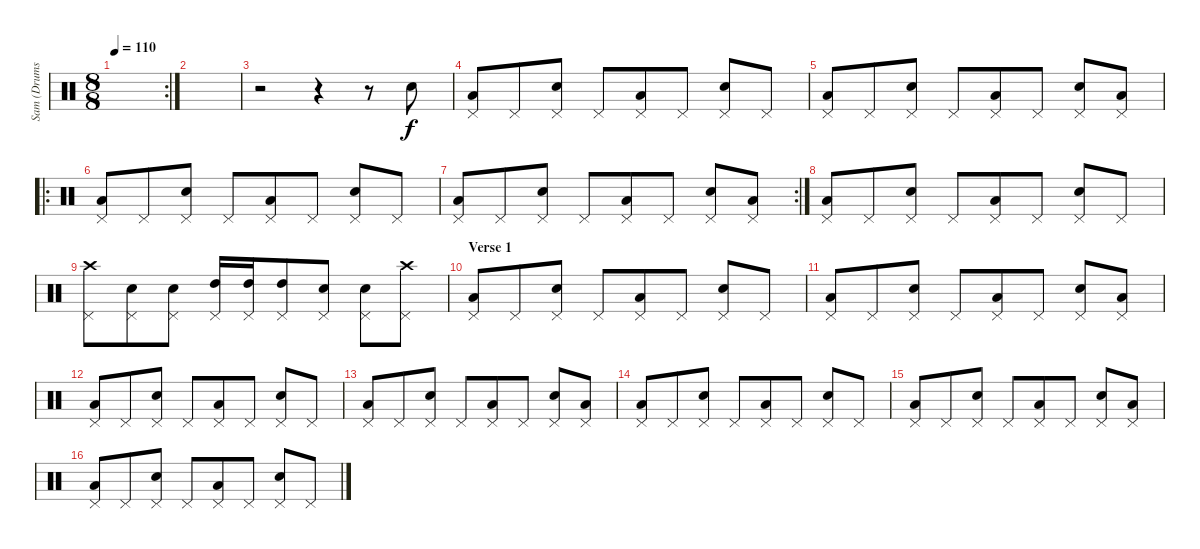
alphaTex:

\track ("Sam (Drums)" "Sam (Drums") {instrument percussion}
\staff {score}
\articulation defaults
\rc 2
\ts (8 8)
\tempo 110
\clef neutral
\ks c
|
|
r.2 r.4 r.8 "Electric Snare (hit)".8 |
("Low Tom (hit)" "Pedal Hi-Hat (hit)").8 "Pedal Hi-Hat (hit)".8 ("Snare (hit) 2" "Pedal Hi-Hat (hit)").8 "Pedal Hi-Hat (hit)".8 ("Low Tom (hit)" "Pedal Hi-Hat (hit)").8 "Pedal Hi-Hat (hit)".8 ("Snare (hit) 2" "Pedal Hi-Hat (hit)").8 "Pedal Hi-Hat (hit)".8 |
("Low Tom (hit)" "Pedal Hi-Hat (hit)").8 "Pedal Hi-Hat (hit)".8 ("Snare (hit) 2" "Pedal Hi-Hat (hit)").8 "Pedal Hi-Hat (hit)".8 ("Low Tom (hit)" "Pedal Hi-Hat (hit)").8 "Pedal Hi-Hat (hit)".8 ("Snare (hit) 2" "Pedal Hi-Hat (hit)").8 ("Low Tom (hit)" "Pedal Hi-Hat (hit)").8 |
\ro
("Low Tom (hit)" "Pedal Hi-Hat (hit)").8 "Pedal Hi-Hat (hit)".8 ("Snare (hit) 2" "Pedal Hi-Hat (hit)").8 "Pedal Hi-Hat (hit)".8 ("Low Tom (hit)" "Pedal Hi-Hat (hit)").8 "Pedal Hi-Hat (hit)".8 ("Snare (hit) 2" "Pedal Hi-Hat (hit)").8 "Pedal Hi-Hat (hit)".8 |
\rc 2
("Low Tom (hit)" "Pedal Hi-Hat (hit)").8 "Pedal Hi-Hat (hit)".8 ("Snare (hit) 2" "Pedal Hi-Hat (hit)").8 "Pedal Hi-Hat (hit)".8 ("Low Tom (hit)" "Pedal Hi-Hat (hit)").8 "Pedal Hi-Hat (hit)".8 ("Snare (hit) 2" "Pedal Hi-Hat (hit)").8 ("Low Tom (hit)" "Pedal Hi-Hat (hit)").8 |
("Low Tom (hit)" "Pedal Hi-Hat (hit)").8 "Pedal Hi-Hat (hit)".8 ("Snare (hit) 2" "Pedal Hi-Hat (hit)").8 "Pedal Hi-Hat (hit)".8 ("Low Tom (hit)" "Pedal Hi-Hat (hit)").8 "Pedal Hi-Hat (hit)".8 ("Snare (hit) 2" "Pedal Hi-Hat (hit)").8 "Pedal Hi-Hat (hit)".8 |
("Crash high (hit)" "Pedal Hi-Hat (hit)").8 ("Electric Snare (hit)" "Pedal Hi-Hat (hit)").8 ("Electric Snare (hit)" "Pedal Hi-Hat (hit)").8 ("High Tom (hit)" "Pedal Hi-Hat (hit)").16 ("High Tom (hit)" "Pedal Hi-Hat (hit)").16 ("High Tom (hit)" "Pedal Hi-Hat (hit)").8 ("Electric Snare (hit)" "Pedal Hi-Hat (hit)").8 ("Electric Snare (hit)" "Pedal Hi-Hat (hit)").8 ("Crash high (hit)" "Pedal Hi-Hat (hit)").8 |
\section ("" "Verse 1")
("Low Tom (hit)" "Pedal Hi-Hat (hit)").8 "Pedal Hi-Hat (hit)".8 ("Snare (hit) 2" "Pedal Hi-Hat (hit)").8 "Pedal Hi-Hat (hit)".8 ("Low Tom (hit)" "Pedal Hi-Hat (hit)").8 "Pedal Hi-Hat (hit)".8 ("Snare (hit) 2" "Pedal Hi-Hat (hit)").8 "Pedal Hi-Hat (hit)".8 |
("Low Tom (hit)" "Pedal Hi-Hat (hit)").8 "Pedal Hi-Hat (hit)".8 ("Snare (hit) 2" "Pedal Hi-Hat (hit)").8 "Pedal Hi-Hat (hit)".8 ("Low Tom (hit)" "Pedal Hi-Hat (hit)").8 "Pedal Hi-Hat (hit)".8 ("Snare (hit) 2" "Pedal Hi-Hat (hit)").8 ("Low Tom (hit)" "Pedal Hi-Hat (hit)").8 |
("Low Tom (hit)" "Pedal Hi-Hat (hit)").8 "Pedal Hi-Hat (hit)".8 ("Snare (hit) 2" "Pedal Hi-Hat (hit)").8 "Pedal Hi-Hat (hit)".8 ("Low Tom (hit)" "Pedal Hi-Hat (hit)").8 "Pedal Hi-Hat (hit)".8 ("Snare (hit) 2" "Pedal Hi-Hat (hit)").8 "Pedal Hi-Hat (hit)".8 |
("Low Tom (hit)" "Pedal Hi-Hat (hit)").8 "Pedal Hi-Hat (hit)".8 ("Snare (hit) 2" "Pedal Hi-Hat (hit)").8 "Pedal Hi-Hat (hit)".8 ("Low Tom (hit)" "Pedal Hi-Hat (hit)").8 "Pedal Hi-Hat (hit)".8 ("Snare (hit) 2" "Pedal Hi-Hat (hit)").8 ("Low Tom (hit)" "Pedal Hi-Hat (hit)").8 |
("Low Tom (hit)" "Pedal Hi-Hat (hit)").8 "Pedal Hi-Hat (hit)".8 ("Snare (hit) 2" "Pedal Hi-Hat (hit)").8 "Pedal Hi-Hat (hit)".8 ("Low Tom (hit)" "Pedal Hi-Hat (hit)").8 "Pedal Hi-Hat (hit)".8 ("Snare (hit) 2" "Pedal Hi-Hat (hit)").8 "Pedal Hi-Hat (hit)".8 |
("Low Tom (hit)" "Pedal Hi-Hat (hit)").8 "Pedal Hi-Hat (hit)".8 ("Snare (hit) 2" "Pedal Hi-Hat (hit)").8 "Pedal Hi-Hat (hit)".8 ("Low Tom (hit)" "Pedal Hi-Hat (hit)").8 "Pedal Hi-Hat (hit)".8 ("Snare (hit) 2" "Pedal Hi-Hat (hit)").8 ("Low Tom (hit)" "Pedal Hi-Hat (hit)").8 |
("Low Tom (hit)" "Pedal Hi-Hat (hit)").8 "Pedal Hi-Hat (hit)".8 ("Snare (hit) 2" "Pedal Hi-Hat (hit)").8 "Pedal Hi-Hat (hit)".8 ("Low Tom (hit)" "Pedal Hi-Hat (hit)").8 "Pedal Hi-Hat (hit)".8 ("Snare (hit) 2" "Pedal Hi-Hat (hit)").8 "Pedal Hi-Hat (hit)".8
